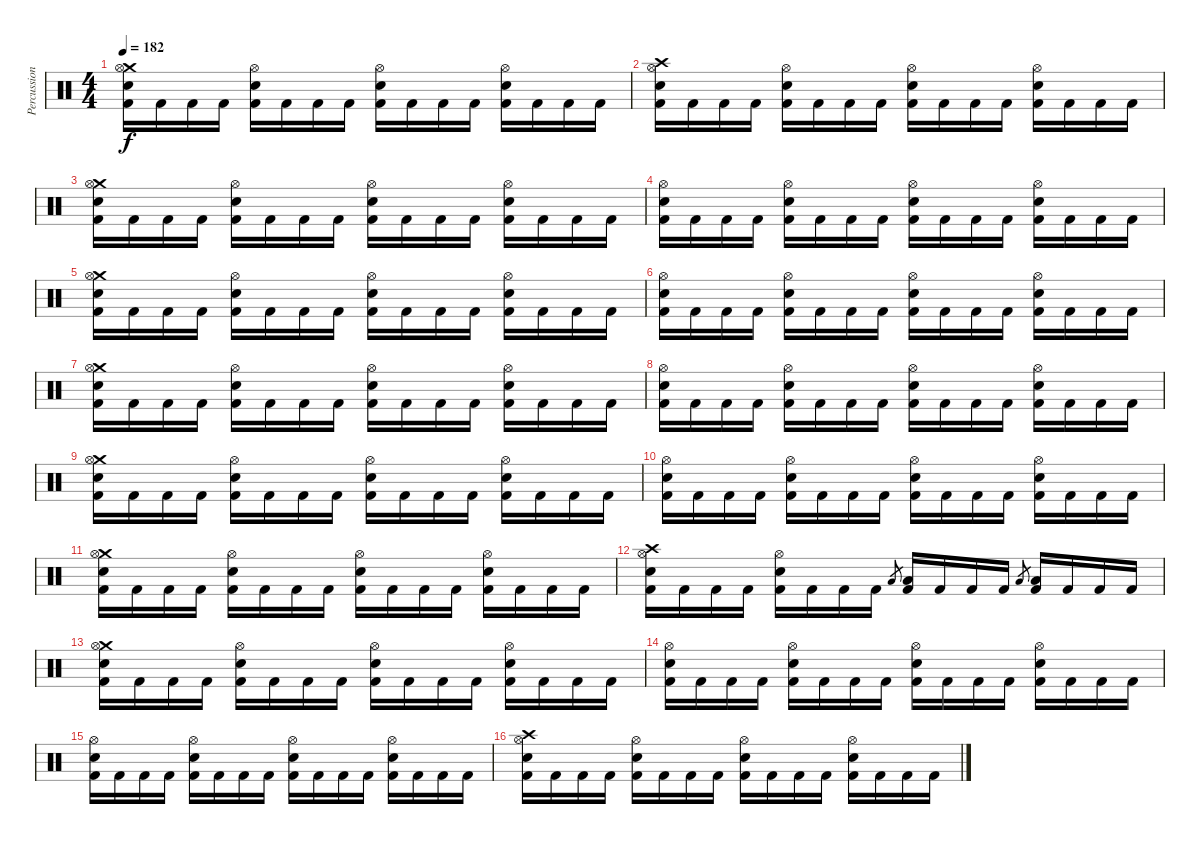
\track ("Percussion" "Percussion") {instrument percussion}
\staff {score}
\articulation defaults
\ts (4 4)
\tempo 182
\clef neutral
\ks c
("Crash medium (hit)" "Hi-Hat (open)" "Electric Snare (hit)" "Kick (hit) 2").16{dy f} "Kick (hit) 2".16 "Kick (hit) 2".16 "Kick (hit) 2".16 ("Hi-Hat (open)" "Electric Snare (hit)" "Kick (hit) 2").16 "Kick (hit) 2".16 "Kick (hit) 2".16 "Kick (hit) 2".16 ("Hi-Hat (open)" "Electric Snare (hit)" "Kick (hit) 2").16 "Kick (hit) 2".16 "Kick (hit) 2".16 "Kick (hit) 2".16 ("Hi-Hat (open)" "Electric Snare (hit)" "Kick (hit) 2").16 "Kick (hit) 2".16 "Kick (hit) 2".16 "Kick (hit) 2".16 |
("Crash high (hit)" "Hi-Hat (open)" "Electric Snare (hit)" "Kick (hit) 2").16 "Kick (hit) 2".16 "Kick (hit) 2".16 "Kick (hit) 2".16 ("Hi-Hat (open)" "Electric Snare (hit)" "Kick (hit) 2").16 "Kick (hit) 2".16 "Kick (hit) 2".16 "Kick (hit) 2".16 ("Hi-Hat (open)" "Electric Snare (hit)" "Kick (hit) 2").16 "Kick (hit) 2".16 "Kick (hit) 2".16 "Kick (hit) 2".16 ("Hi-Hat (open)" "Electric Snare (hit)" "Kick (hit) 2").16 "Kick (hit) 2".16 "Kick (hit) 2".16 "Kick (hit) 2".16 |
("Crash medium (hit)" "Hi-Hat (open)" "Electric Snare (hit)" "Kick (hit) 2").16 "Kick (hit) 2".16 "Kick (hit) 2".16 "Kick (hit) 2".16 ("Hi-Hat (open)" "Electric Snare (hit)" "Kick (hit) 2").16 "Kick (hit) 2".16 "Kick (hit) 2".16 "Kick (hit) 2".16 ("Hi-Hat (open)" "Electric Snare (hit)" "Kick (hit) 2").16 "Kick (hit) 2".16 "Kick (hit) 2".16 "Kick (hit) 2".16 ("Hi-Hat (open)" "Electric Snare (hit)" "Kick (hit) 2").16 "Kick (hit) 2".16 "Kick (hit) 2".16 "Kick (hit) 2".16 |
("Hi-Hat (open)" "Electric Snare (hit)" "Kick (hit) 2").16 "Kick (hit) 2".16 "Kick (hit) 2".16 "Kick (hit) 2".16 ("Hi-Hat (open)" "Electric Snare (hit)" "Kick (hit) 2").16 "Kick (hit) 2".16 "Kick (hit) 2".16 "Kick (hit) 2".16 ("Hi-Hat (open)" "Electric Snare (hit)" "Kick (hit) 2").16 "Kick (hit) 2".16 "Kick (hit) 2".16 "Kick (hit) 2".16 ("Hi-Hat (open)" "Electric Snare (hit)" "Kick (hit) 2").16 "Kick (hit) 2".16 "Kick (hit) 2".16 "Kick (hit) 2".16 |
("Crash medium (hit)" "Hi-Hat (open)" "Electric Snare (hit)" "Kick (hit) 2").16 "Kick (hit) 2".16 "Kick (hit) 2".16 "Kick (hit) 2".16 ("Hi-Hat (open)" "Electric Snare (hit)" "Kick (hit) 2").16 "Kick (hit) 2".16 "Kick (hit) 2".16 "Kick (hit) 2".16 ("Hi-Hat (open)" "Electric Snare (hit)" "Kick (hit) 2").16 "Kick (hit) 2".16 "Kick (hit) 2".16 "Kick (hit) 2".16 ("Hi-Hat (open)" "Electric Snare (hit)" "Kick (hit) 2").16 "Kick (hit) 2".16 "Kick (hit) 2".16 "Kick (hit) 2".16 |
("Hi-Hat (open)" "Electric Snare (hit)" "Kick (hit) 2").16 "Kick (hit) 2".16 "Kick (hit) 2".16 "Kick (hit) 2".16 ("Hi-Hat (open)" "Electric Snare (hit)" "Kick (hit) 2").16 "Kick (hit) 2".16 "Kick (hit) 2".16 "Kick (hit) 2".16 ("Hi-Hat (open)" "Electric Snare (hit)" "Kick (hit) 2").16 "Kick (hit) 2".16 "Kick (hit) 2".16 "Kick (hit) 2".16 ("Hi-Hat (open)" "Electric Snare (hit)" "Kick (hit) 2").16 "Kick (hit) 2".16 "Kick (hit) 2".16 "Kick (hit) 2".16 |
("Crash medium (hit)" "Hi-Hat (open)" "Electric Snare (hit)" "Kick (hit) 2").16 "Kick (hit) 2".16 "Kick (hit) 2".16 "Kick (hit) 2".16 ("Hi-Hat (open)" "Electric Snare (hit)" "Kick (hit) 2").16 "Kick (hit) 2".16 "Kick (hit) 2".16 "Kick (hit) 2".16 ("Hi-Hat (open)" "Electric Snare (hit)" "Kick (hit) 2").16 "Kick (hit) 2".16 "Kick (hit) 2".16 "Kick (hit) 2".16 ("Hi-Hat (open)" "Electric Snare (hit)" "Kick (hit) 2").16 "Kick (hit) 2".16 "Kick (hit) 2".16 "Kick (hit) 2".16 |
("Hi-Hat (open)" "Electric Snare (hit)" "Kick (hit) 2").16 "Kick (hit) 2".16 "Kick (hit) 2".16 "Kick (hit) 2".16 ("Hi-Hat (open)" "Electric Snare (hit)" "Kick (hit) 2").16 "Kick (hit) 2".16 "Kick (hit) 2".16 "Kick (hit) 2".16 ("Hi-Hat (open)" "Electric Snare (hit)" "Kick (hit) 2").16 "Kick (hit) 2".16 "Kick (hit) 2".16 "Kick (hit) 2".16 ("Hi-Hat (open)" "Electric Snare (hit)" "Kick (hit) 2").16 "Kick (hit) 2".16 "Kick (hit) 2".16 "Kick (hit) 2".16 |
("Crash medium (hit)" "Hi-Hat (open)" "Electric Snare (hit)" "Kick (hit) 2").16 "Kick (hit) 2".16 "Kick (hit) 2".16 "Kick (hit) 2".16 ("Hi-Hat (open)" "Electric Snare (hit)" "Kick (hit) 2").16 "Kick (hit) 2".16 "Kick (hit) 2".16 "Kick (hit) 2".16 ("Hi-Hat (open)" "Electric Snare (hit)" "Kick (hit) 2").16 "Kick (hit) 2".16 "Kick (hit) 2".16 "Kick (hit) 2".16 ("Hi-Hat (open)" "Electric Snare (hit)" "Kick (hit) 2").16 "Kick (hit) 2".16 "Kick (hit) 2".16 "Kick (hit) 2".16 |
("Hi-Hat (open)" "Electric Snare (hit)" "Kick (hit) 2").16 "Kick (hit) 2".16 "Kick (hit) 2".16 "Kick (hit) 2".16 ("Hi-Hat (open)" "Electric Snare (hit)" "Kick (hit) 2").16 "Kick (hit) 2".16 "Kick (hit) 2".16 "Kick (hit) 2".16 ("Hi-Hat (open)" "Electric Snare (hit)" "Kick (hit) 2").16 "Kick (hit) 2".16 "Kick (hit) 2".16 "Kick (hit) 2".16 ("Hi-Hat (open)" "Electric Snare (hit)" "Kick (hit) 2").16 "Kick (hit) 2".16 "Kick (hit) 2".16 "Kick (hit) 2".16 |
("Crash medium (hit)" "Hi-Hat (open)" "Electric Snare (hit)" "Kick (hit) 2").16 "Kick (hit) 2".16 "Kick (hit) 2".16 "Kick (hit) 2".16 ("Hi-Hat (open)" "Electric Snare (hit)" "Kick (hit) 2").16 "Kick (hit) 2".16 "Kick (hit) 2".16 "Kick (hit) 2".16 ("Hi-Hat (open)" "Electric Snare (hit)" "Kick (hit) 2").16 "Kick (hit) 2".16 "Kick (hit) 2".16 "Kick (hit) 2".16 ("Hi-Hat (open)" "Electric Snare (hit)" "Kick (hit) 2").16 "Kick (hit) 2".16 "Kick (hit) 2".16 "Kick (hit) 2".16 |
("Crash high (hit)" "Hi-Hat (open)" "Electric Snare (hit)" "Kick (hit) 2").16 "Kick (hit) 2".16 "Kick (hit) 2".16 "Kick (hit) 2".16 ("Hi-Hat (open)" "Electric Snare (hit)" "Kick (hit) 2").16 "Kick (hit) 2".16 "Kick (hit) 2".16 "Kick (hit) 2".16 "Low Tom (hit)".8{gr} ("Low Tom (hit)" "Kick (hit) 2").16 "Kick (hit) 2".16 "Kick (hit) 2".16 "Kick (hit) 2".16 "Low Tom (hit)".8{gr} ("Low Tom (hit)" "Kick (hit) 2").16 "Kick (hit) 2".16 "Kick (hit) 2".16 "Kick (hit) 2".16 |
("Crash medium (hit)" "Hi-Hat (open)" "Electric Snare (hit)" "Kick (hit) 2").16 "Kick (hit) 2".16 "Kick (hit) 2".16 "Kick (hit) 2".16 ("Hi-Hat (open)" "Electric Snare (hit)" "Kick (hit) 2").16 "Kick (hit) 2".16 "Kick (hit) 2".16 "Kick (hit) 2".16 ("Hi-Hat (open)" "Electric Snare (hit)" "Kick (hit) 2").16 "Kick (hit) 2".16 "Kick (hit) 2".16 "Kick (hit) 2".16 ("Hi-Hat (open)" "Electric Snare (hit)" "Kick (hit) 2").16 "Kick (hit) 2".16 "Kick (hit) 2".16 "Kick (hit) 2".16 |
("Hi-Hat (open)" "Electric Snare (hit)" "Kick (hit) 2").16 "Kick (hit) 2".16 "Kick (hit) 2".16 "Kick (hit) 2".16 ("Hi-Hat (open)" "Electric Snare (hit)" "Kick (hit) 2").16 "Kick (hit) 2".16 "Kick (hit) 2".16 "Kick (hit) 2".16 ("Hi-Hat (open)" "Electric Snare (hit)" "Kick (hit) 2").16 "Kick (hit) 2".16 "Kick (hit) 2".16 "Kick (hit) 2".16 ("Hi-Hat (open)" "Electric Snare (hit)" "Kick (hit) 2").16 "Kick (hit) 2".16 "Kick (hit) 2".16 "Kick (hit) 2".16 |
("Hi-Hat (open)" "Electric Snare (hit)" "Kick (hit) 2").16 "Kick (hit) 2".16 "Kick (hit) 2".16 "Kick (hit) 2".16 ("Hi-Hat (open)" "Electric Snare (hit)" "Kick (hit) 2").16 "Kick (hit) 2".16 "Kick (hit) 2".16 "Kick (hit) 2".16 ("Hi-Hat (open)" "Electric Snare (hit)" "Kick (hit) 2").16 "Kick (hit) 2".16 "Kick (hit) 2".16 "Kick (hit) 2".16 ("Hi-Hat (open)" "Electric Snare (hit)" "Kick (hit) 2").16 "Kick (hit) 2".16 "Kick (hit) 2".16 "Kick (hit) 2".16 |
("Crash high (hit)" "Hi-Hat (open)" "Electric Snare (hit)" "Kick (hit) 2").16 "Kick (hit) 2".16 "Kick (hit) 2".16 "Kick (hit) 2".16 ("Hi-Hat (open)" "Electric Snare (hit)" "Kick (hit) 2").16 "Kick (hit) 2".16 "Kick (hit) 2".16 "Kick (hit) 2".16 ("Hi-Hat (open)" "Electric Snare (hit)" "Kick (hit) 2").16 "Kick (hit) 2".16 "Kick (hit) 2".16 "Kick (hit) 2".16 ("Hi-Hat (open)" "Electric Snare (hit)" "Kick (hit) 2").16 "Kick (hit) 2".16 "Kick (hit) 2".16 "Kick (hit) 2".16
